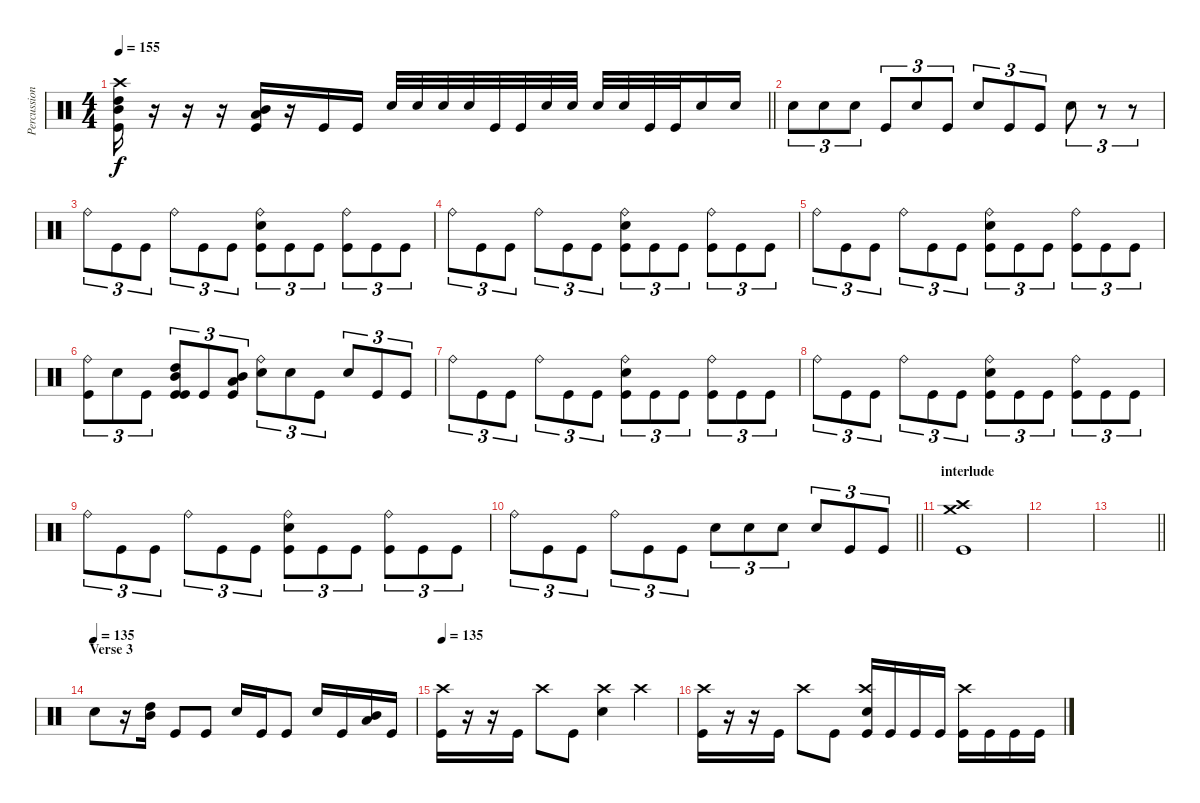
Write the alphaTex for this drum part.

\track ("Percussion" "Percussion") {instrument percussion}
\staff {score}
\articulation defaults
\ts (4 4)
\tempo 155
\clef neutral
\barLineRight lightlight
\ks c
("Kick (hit)" "High Tom (hit)" "Mid Tom (hit)" "Crash high (hit)").16{dy f} r.16 r.16 r.16 ("Kick (hit)" "Mid Tom (hit)" "Low Tom (hit)").16 r.16 "Kick (hit)".16 "Kick (hit)".16 "Snare (hit) 2".32 "Snare (hit) 2".32 "Snare (hit) 2".32 "Snare (hit) 2".32 "Kick (hit)".32 "Kick (hit)".32 "Snare (hit) 2".32 "Snare (hit) 2".32 "Snare (hit) 2".32 "Snare (hit) 2".32 "Kick (hit)".32 "Kick (hit)".32 "Snare (hit) 2".16 "Snare (hit) 2".16 |
"Snare (hit) 2".8{tu (3 2)} "Snare (hit) 2".8{tu (3 2)} "Snare (hit) 2".8{tu (3 2)} "Kick (hit)".8{tu (3 2)} "Snare (hit) 2".8{tu (3 2)} "Kick (hit)".8{tu (3 2)} "Snare (hit) 2".8{tu (3 2)} "Kick (hit)".8{tu (3 2)} "Kick (hit)".8{tu (3 2)} "Snare (hit) 2".8{tu (3 2)} r.8{tu (3 2)} r.8{tu (3 2)} |
"Ride (bell)".8{tu (3 2)} "Kick (hit)".8{tu (3 2)} "Kick (hit)".8{tu (3 2)} "Ride (bell)".8{tu (3 2)} "Kick (hit)".8{tu (3 2)} "Kick (hit)".8{tu (3 2)} ("Kick (hit)" "Snare (hit) 2" "Ride (bell)").8{tu (3 2)} "Kick (hit)".8{tu (3 2)} "Kick (hit)".8{tu (3 2)} ("Kick (hit)" "Ride (bell)").8{tu (3 2)} "Kick (hit)".8{tu (3 2)} "Kick (hit)".8{tu (3 2)} |
"Ride (bell)".8{tu (3 2)} "Kick (hit)".8{tu (3 2)} "Kick (hit)".8{tu (3 2)} "Ride (bell)".8{tu (3 2)} "Kick (hit)".8{tu (3 2)} "Kick (hit)".8{tu (3 2)} ("Kick (hit)" "Snare (hit) 2" "Ride (bell)").8{tu (3 2)} "Kick (hit)".8{tu (3 2)} "Kick (hit)".8{tu (3 2)} ("Kick (hit)" "Ride (bell)").8{tu (3 2)} "Kick (hit)".8{tu (3 2)} "Kick (hit)".8{tu (3 2)} |
"Ride (bell)".8{tu (3 2)} "Kick (hit)".8{tu (3 2)} "Kick (hit)".8{tu (3 2)} "Ride (bell)".8{tu (3 2)} "Kick (hit)".8{tu (3 2)} "Kick (hit)".8{tu (3 2)} ("Kick (hit)" "Snare (hit) 2" "Ride (bell)").8{tu (3 2)} "Kick (hit)".8{tu (3 2)} "Kick (hit)".8{tu (3 2)} ("Kick (hit)" "Ride (bell)").8{tu (3 2)} "Kick (hit)".8{tu (3 2)} "Kick (hit)".8{tu (3 2)} |
("Kick (hit)" "Ride (bell)").8{tu (3 2)} "Snare (hit) 2".8{tu (3 2)} "Kick (hit)".8{tu (3 2)} ("Kick (hit)" "High Tom (hit)" "Mid Tom (hit)" "Kick (hit)").8{tu (3 2)} "Kick (hit)".8{tu (3 2)} ("Kick (hit)" "Mid Tom (hit)" "Low Tom (hit)").8{tu (3 2)} ("Snare (hit) 2" "Ride (bell)").8{tu (3 2)} "Snare (hit) 2".8{tu (3 2)} "Kick (hit)".8{tu (3 2)} "Snare (hit) 2".8{tu (3 2)} "Kick (hit)".8{tu (3 2)} "Kick (hit)".8{tu (3 2)} |
"Ride (bell)".8{tu (3 2)} "Kick (hit)".8{tu (3 2)} "Kick (hit)".8{tu (3 2)} "Ride (bell)".8{tu (3 2)} "Kick (hit)".8{tu (3 2)} "Kick (hit)".8{tu (3 2)} ("Kick (hit)" "Snare (hit) 2" "Ride (bell)").8{tu (3 2)} "Kick (hit)".8{tu (3 2)} "Kick (hit)".8{tu (3 2)} ("Kick (hit)" "Ride (bell)").8{tu (3 2)} "Kick (hit)".8{tu (3 2)} "Kick (hit)".8{tu (3 2)} |
"Ride (bell)".8{tu (3 2)} "Kick (hit)".8{tu (3 2)} "Kick (hit)".8{tu (3 2)} "Ride (bell)".8{tu (3 2)} "Kick (hit)".8{tu (3 2)} "Kick (hit)".8{tu (3 2)} ("Kick (hit)" "Snare (hit) 2" "Ride (bell)").8{tu (3 2)} "Kick (hit)".8{tu (3 2)} "Kick (hit)".8{tu (3 2)} ("Kick (hit)" "Ride (bell)").8{tu (3 2)} "Kick (hit)".8{tu (3 2)} "Kick (hit)".8{tu (3 2)} |
"Ride (bell)".8{tu (3 2)} "Kick (hit)".8{tu (3 2)} "Kick (hit)".8{tu (3 2)} "Ride (bell)".8{tu (3 2)} "Kick (hit)".8{tu (3 2)} "Kick (hit)".8{tu (3 2)} ("Kick (hit)" "Snare (hit) 2" "Ride (bell)").8{tu (3 2)} "Kick (hit)".8{tu (3 2)} "Kick (hit)".8{tu (3 2)} ("Kick (hit)" "Ride (bell)").8{tu (3 2)} "Kick (hit)".8{tu (3 2)} "Kick (hit)".8{tu (3 2)} |
\barLineRight lightlight "Ride (bell)".8{tu (3 2)} "Kick (hit)".8{tu (3 2)} "Kick (hit)".8{tu (3 2)} "Ride (bell)".8{tu (3 2)} "Kick (hit)".8{tu (3 2)} "Kick (hit)".8{tu (3 2)} "Snare (hit) 2".8{tu (3 2)} "Snare (hit) 2".8{tu (3 2)} "Snare (hit) 2".8{tu (3 2)} "Snare (hit) 2".8{tu (3 2)} "Kick (hit)".8{tu (3 2)} "Kick (hit)".8{tu (3 2)}
|
\section ("" "interlude")
("Crash medium (hit)" "Kick (hit)" "Crash high (hit)").1 |
|
\barLineRight lightlight
|
\section ("" "Verse 3")
\tempo (135)
"Snare (hit) 2".8 r.16 ("High Tom (hit)" "Mid Tom (hit)").16 "Kick (hit)".8 "Kick (hit)".8 "Snare (hit) 2".16 "Kick (hit)".16 "Kick (hit)".8 "Snare (hit) 2".16 "Kick (hit)".16 ("Mid Tom (hit)" "Low Tom (hit)").16 "Kick (hit)".16 |
\tempo 135
("Kick (hit)" "Crash high (hit)").16 r.16 r.16 "Kick (hit)".16 "Crash high (hit)".8 "Kick (hit)".8 ("Crash high (hit)" "Snare (hit) 2").4 "Crash high (hit)".4 |
("Kick (hit)" "Crash high (hit)").16 r.16 r.16 "Kick (hit)".16 "Crash high (hit)".8 "Kick (hit)".8 ("Crash high (hit)" "Snare (hit) 2" "Kick (hit)").16 "Kick (hit)".16 "Kick (hit)".16 "Kick (hit)".16 ("Crash high (hit)" "Kick (hit)").16 "Kick (hit)".16 "Kick (hit)".16 "Kick (hit)".16
